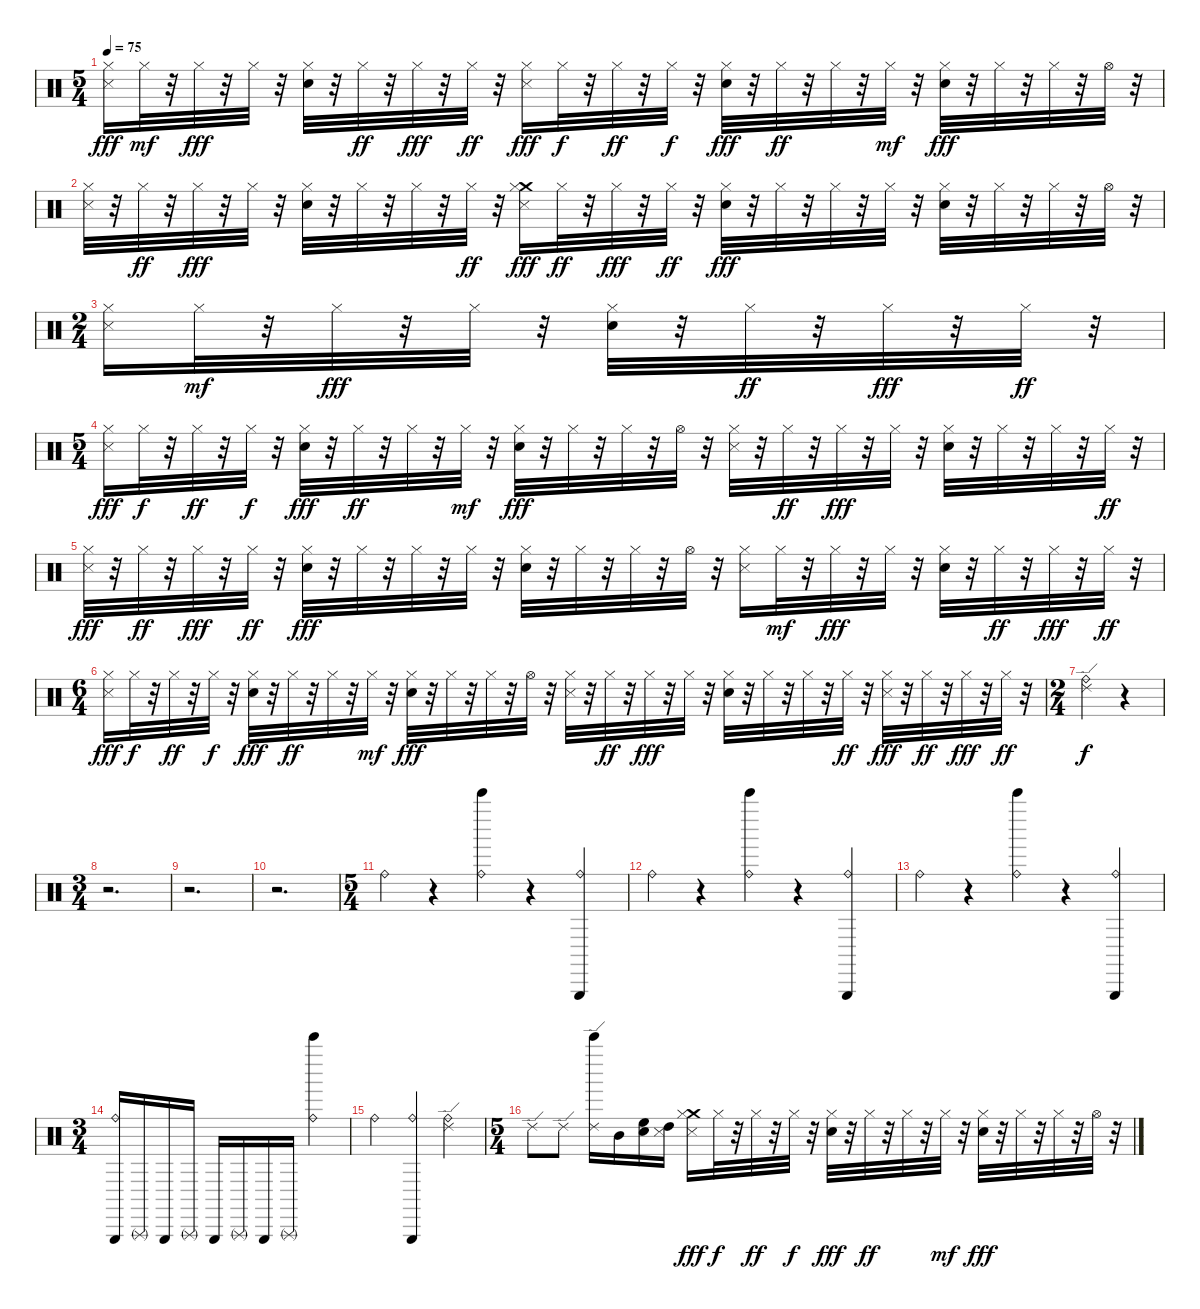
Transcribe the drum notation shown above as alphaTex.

\track "" {instrument percussion}
\staff {score}
\articulation defaults
\ts (5 4)
\tempo 75
\clef neutral
\ks c
("Metronome (hit)" "Hi-Hat (closed)").16{dy fff} "Hi-Hat (closed)".32{dy mf} r.32 "Hi-Hat (closed)".32{dy fff} r.32 "Hi-Hat (closed)".32 r.32 ("Snare (hit) 2" "Hi-Hat (closed)").32 r.32 "Hi-Hat (closed)".32{dy ff} r.32 "Hi-Hat (closed)".32{dy fff} r.32 "Hi-Hat (closed)".32{dy ff} r.32 ("Metronome (hit)" "Hi-Hat (closed)").16{dy fff} "Hi-Hat (closed)".32{dy f} r.32 "Hi-Hat (closed)".32{dy ff} r.32 "Hi-Hat (closed)".32{dy f} r.32 ("Snare (hit) 2" "Hi-Hat (closed)").32{dy fff} r.32 "Hi-Hat (closed)".32{dy ff} r.32 "Hi-Hat (closed)".32 r.32 "Hi-Hat (closed)".32{dy mf} r.32 ("Snare (hit) 2" "Hi-Hat (closed)").32{dy fff} r.32 "Hi-Hat (closed)".32 r.32 "Hi-Hat (closed)".32 r.32 "Hi-Hat (open)".32 r.32 |
("Metronome (hit)" "Hi-Hat (closed)").32 r.32 "Hi-Hat (closed)".32{dy ff} r.32 "Hi-Hat (closed)".32{dy fff} r.32 "Hi-Hat (closed)".32 r.32 ("Snare (hit) 2" "Hi-Hat (closed)").32 r.32 "Hi-Hat (closed)".32 r.32 "Hi-Hat (closed)".32 r.32 "Hi-Hat (closed)".32{dy ff} r.32 ("Crash medium (hit)" "Metronome (hit)" "Hi-Hat (closed)").16{dy fff} "Hi-Hat (closed)".32{dy ff} r.32 "Hi-Hat (closed)".32{dy fff} r.32 "Hi-Hat (closed)".32{dy ff} r.32 ("Hi-Hat (closed)" "Snare (hit) 2").32{dy fff} r.32 "Hi-Hat (closed)".32 r.32 "Hi-Hat (closed)".32 r.32 "Hi-Hat (closed)".32 r.32 ("Snare (hit) 2" "Hi-Hat (closed)").32 r.32 "Hi-Hat (closed)".32 r.32 "Hi-Hat (closed)".32 r.32 "Hi-Hat (open)".32 r.32 |
\ts (2 4)
("Metronome (hit)" "Hi-Hat (closed)").16 "Hi-Hat (closed)".32{dy mf} r.32 "Hi-Hat (closed)".32{dy fff} r.32 "Hi-Hat (closed)".32 r.32 ("Snare (hit) 2" "Hi-Hat (closed)").32 r.32 "Hi-Hat (closed)".32{dy ff} r.32 "Hi-Hat (closed)".32{dy fff} r.32 "Hi-Hat (closed)".32{dy ff} r.32 |
\ts (5 4)
("Metronome (hit)" "Hi-Hat (closed)").16{dy fff} "Hi-Hat (closed)".32{dy f} r.32 "Hi-Hat (closed)".32{dy ff} r.32 "Hi-Hat (closed)".32{dy f} r.32 ("Snare (hit) 2" "Hi-Hat (closed)").32{dy fff} r.32 "Hi-Hat (closed)".32{dy ff} r.32 "Hi-Hat (closed)".32 r.32 "Hi-Hat (closed)".32{dy mf} r.32 ("Snare (hit) 2" "Hi-Hat (closed)").32{dy fff} r.32 "Hi-Hat (closed)".32 r.32 "Hi-Hat (closed)".32 r.32 "Hi-Hat (open)".32 r.32 ("Metronome (hit)" "Hi-Hat (closed)").32 r.32 "Hi-Hat (closed)".32{dy ff} r.32 "Hi-Hat (closed)".32{dy fff} r.32 "Hi-Hat (closed)".32 r.32 ("Snare (hit) 2" "Hi-Hat (closed)").32 r.32 "Hi-Hat (closed)".32 r.32 "Hi-Hat (closed)".32 r.32 "Hi-Hat (closed)".32{dy ff} r.32 |
("Metronome (hit)" "Hi-Hat (closed)").32{dy fff} r.32 "Hi-Hat (closed)".32{dy ff} r.32 "Hi-Hat (closed)".32{dy fff} r.32 "Hi-Hat (closed)".32{dy ff} r.32 ("Hi-Hat (closed)" "Snare (hit) 2").32{dy fff} r.32 "Hi-Hat (closed)".32 r.32 "Hi-Hat (closed)".32 r.32 "Hi-Hat (closed)".32 r.32 ("Snare (hit) 2" "Hi-Hat (closed)").32 r.32 "Hi-Hat (closed)".32 r.32 "Hi-Hat (closed)".32 r.32 "Hi-Hat (open)".32 r.32 ("Metronome (hit)" "Hi-Hat (closed)").16 "Hi-Hat (closed)".32{dy mf} r.32 "Hi-Hat (closed)".32{dy fff} r.32 "Hi-Hat (closed)".32 r.32 ("Snare (hit) 2" "Hi-Hat (closed)").32 r.32 "Hi-Hat (closed)".32{dy ff} r.32 "Hi-Hat (closed)".32{dy fff} r.32 "Hi-Hat (closed)".32{dy ff} r.32 |
\ts (6 4)
("Metronome (hit)" "Hi-Hat (closed)").16{dy fff} "Hi-Hat (closed)".32{dy f} r.32 "Hi-Hat (closed)".32{dy ff} r.32 "Hi-Hat (closed)".32{dy f} r.32 ("Snare (hit) 2" "Hi-Hat (closed)").32{dy fff} r.32 "Hi-Hat (closed)".32{dy ff} r.32 "Hi-Hat (closed)".32 r.32 "Hi-Hat (closed)".32{dy mf} r.32 ("Snare (hit) 2" "Hi-Hat (closed)").32{dy fff} r.32 "Hi-Hat (closed)".32 r.32 "Hi-Hat (closed)".32 r.32 "Hi-Hat (open)".32 r.32 ("Metronome (hit)" "Hi-Hat (closed)").32 r.32 "Hi-Hat (closed)".32{dy ff} r.32 "Hi-Hat (closed)".32{dy fff} r.32 "Hi-Hat (closed)".32 r.32 ("Snare (hit) 2" "Hi-Hat (closed)").32 r.32 "Hi-Hat (closed)".32 r.32 "Hi-Hat (closed)".32 r.32 "Hi-Hat (closed)".32{dy ff} r.32 ("Metronome (hit)" "Hi-Hat (closed)").32{dy fff} r.32 "Hi-Hat (closed)".32{dy ff} r.32 "Hi-Hat (closed)".32{dy fff} r.32 "Hi-Hat (closed)".32{dy ff} r.32 |
\ts (2 4)
("Ride (bell)" "Ride (edge) 2").4{dy f} r.4 |
\ts (3 4)
r.2{d} |
r.2{d} |
r.2{d} |
\ts (5 4)
"Ride (bell)".4 r.4 ("Bell Tree (hit)" "Ride (bell)").4 r.4 ("Triangle (hit)" "Ride (bell)").4 |
"Ride (bell)".4 r.4 ("Bell Tree (hit)" "Ride (bell)").4 r.4 ("Triangle (hit)" "Ride (bell)").4 |
"Ride (bell)".4 r.4 ("Bell Tree (hit)" "Ride (bell)").4 r.4 ("Triangle (hit)" "Ride (bell)").4 |
\ts (3 4)
("Triangle (hit)" "Ride (bell)").16 "Triangle (rnute)".16 "Triangle (hit)".16 "Triangle (rnute)".16 "Triangle (hit)".16 "Triangle (rnute)".16 "Triangle (hit)".16 "Triangle (rnute)".16 ("Bell Tree (hit)" "Ride (bell)").4 |
"Ride (bell)".4 ("Triangle (hit)" "Ride (bell)").4 ("Ride (edge) 2" "Ride (bell)").4 |
\ts (5 4)
"Ride (edge) 2".8 "Ride (edge) 2".8 ("Bell Tree (hit)" "Ride (edge) 2").16 "Mid Tom (hit)".16 ("High Floor Tom (hit)" "Electric Snare (hit)").16 ("High Tom (hit)" "Metronome (hit)").16 ("Crash medium (hit)" "Metronome (hit)" "Hi-Hat (closed)").16{dy fff} "Hi-Hat (closed)".32{dy f} r.32 "Hi-Hat (closed)".32{dy ff} r.32 "Hi-Hat (closed)".32{dy f} r.32 ("Snare (hit) 2" "Hi-Hat (closed)").32{dy fff} r.32 "Hi-Hat (closed)".32{dy ff} r.32 "Hi-Hat (closed)".32 r.32 "Hi-Hat (closed)".32{dy mf} r.32 ("Snare (hit) 2" "Hi-Hat (closed)").32{dy fff} r.32 "Hi-Hat (closed)".32 r.32 "Hi-Hat (closed)".32 r.32 "Hi-Hat (open)".32 r.32
